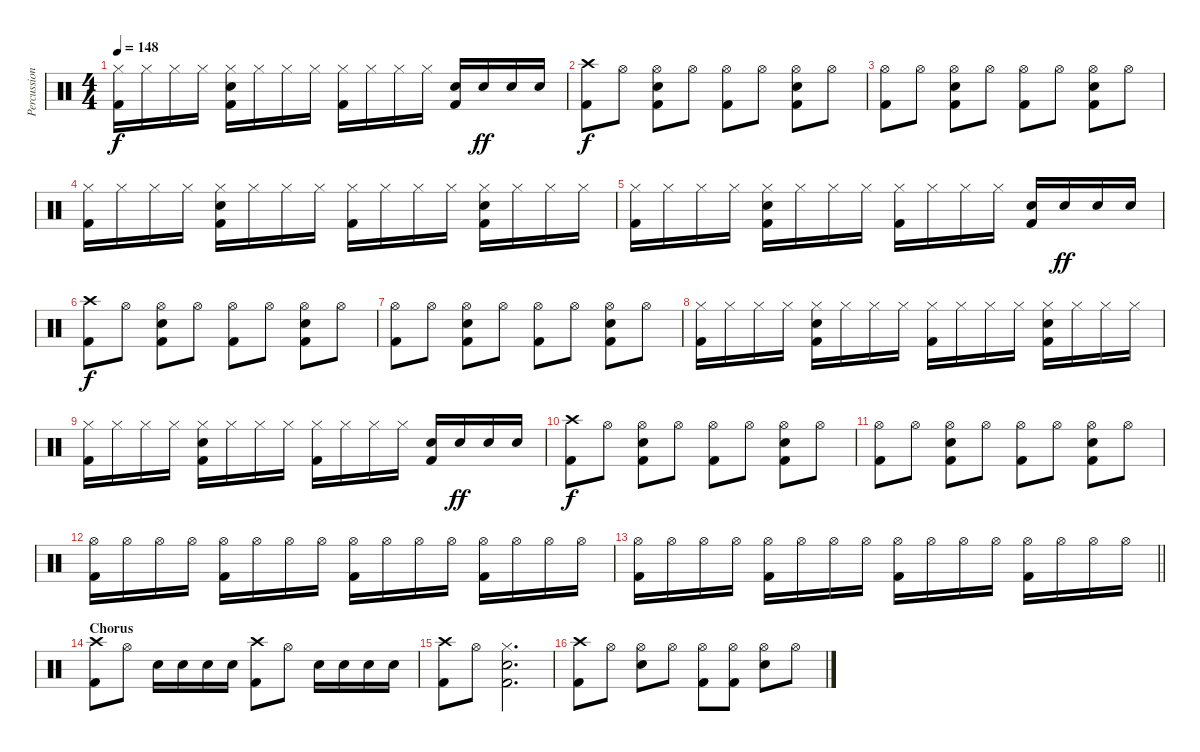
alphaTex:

\track ("Percussion" "Percussion") {instrument percussion}
\staff {score}
\articulation defaults
\ts (4 4)
\tempo 148
\clef neutral
\ks c
("Hi-Hat (closed)" "Kick (hit) 2").16{dy f} "Hi-Hat (closed)".16 "Hi-Hat (closed)".16 "Hi-Hat (closed)".16 ("Hi-Hat (closed)" "Electric Snare (hit)" "Kick (hit) 2").16 "Hi-Hat (closed)".16 "Hi-Hat (closed)".16 "Hi-Hat (closed)".16 ("Hi-Hat (closed)" "Kick (hit) 2").16 "Hi-Hat (closed)".16 "Hi-Hat (closed)".16 "Hi-Hat (closed)".16 ("Electric Snare (hit)" "Kick (hit) 2").16 "Electric Snare (hit)".16{dy ff} "Electric Snare (hit)".16 "Electric Snare (hit)".16 |
("Crash high (hit)" "Kick (hit) 2").8{dy f} "Hi-Hat (open)".8 ("Hi-Hat (open)" "Electric Snare (hit)" "Kick (hit) 2").8 "Hi-Hat (open)".8 ("Hi-Hat (open)" "Kick (hit) 2").8 "Hi-Hat (open)".8 ("Hi-Hat (open)" "Electric Snare (hit)" "Kick (hit) 2").8 "Hi-Hat (open)".8 |
("Hi-Hat (open)" "Kick (hit) 2").8 "Hi-Hat (open)".8 ("Hi-Hat (open)" "Electric Snare (hit)" "Kick (hit) 2").8 "Hi-Hat (open)".8 ("Hi-Hat (open)" "Kick (hit) 2").8 "Hi-Hat (open)".8 ("Hi-Hat (open)" "Electric Snare (hit)" "Kick (hit) 2").8 "Hi-Hat (open)".8 |
("Hi-Hat (closed)" "Kick (hit) 2").16 "Hi-Hat (closed)".16 "Hi-Hat (closed)".16 "Hi-Hat (closed)".16 ("Hi-Hat (closed)" "Electric Snare (hit)" "Kick (hit) 2").16 "Hi-Hat (closed)".16 "Hi-Hat (closed)".16 "Hi-Hat (closed)".16 ("Hi-Hat (closed)" "Kick (hit) 2").16 "Hi-Hat (closed)".16 "Hi-Hat (closed)".16 "Hi-Hat (closed)".16 ("Hi-Hat (closed)" "Electric Snare (hit)" "Kick (hit) 2").16 "Hi-Hat (closed)".16 "Hi-Hat (closed)".16 "Hi-Hat (closed)".16 |
("Hi-Hat (closed)" "Kick (hit) 2").16 "Hi-Hat (closed)".16 "Hi-Hat (closed)".16 "Hi-Hat (closed)".16 ("Hi-Hat (closed)" "Electric Snare (hit)" "Kick (hit) 2").16 "Hi-Hat (closed)".16 "Hi-Hat (closed)".16 "Hi-Hat (closed)".16 ("Hi-Hat (closed)" "Kick (hit) 2").16 "Hi-Hat (closed)".16 "Hi-Hat (closed)".16 "Hi-Hat (closed)".16 ("Electric Snare (hit)" "Kick (hit) 2").16 "Electric Snare (hit)".16{dy ff} "Electric Snare (hit)".16 "Electric Snare (hit)".16 |
("Crash high (hit)" "Kick (hit) 2").8{dy f} "Hi-Hat (open)".8 ("Hi-Hat (open)" "Electric Snare (hit)" "Kick (hit) 2").8 "Hi-Hat (open)".8 ("Hi-Hat (open)" "Kick (hit) 2").8 "Hi-Hat (open)".8 ("Hi-Hat (open)" "Electric Snare (hit)" "Kick (hit) 2").8 "Hi-Hat (open)".8 |
("Hi-Hat (open)" "Kick (hit) 2").8 "Hi-Hat (open)".8 ("Hi-Hat (open)" "Electric Snare (hit)" "Kick (hit) 2").8 "Hi-Hat (open)".8 ("Hi-Hat (open)" "Kick (hit) 2").8 "Hi-Hat (open)".8 ("Hi-Hat (open)" "Electric Snare (hit)" "Kick (hit) 2").8 "Hi-Hat (open)".8 |
("Hi-Hat (closed)" "Kick (hit) 2").16 "Hi-Hat (closed)".16 "Hi-Hat (closed)".16 "Hi-Hat (closed)".16 ("Hi-Hat (closed)" "Electric Snare (hit)" "Kick (hit) 2").16 "Hi-Hat (closed)".16 "Hi-Hat (closed)".16 "Hi-Hat (closed)".16 ("Hi-Hat (closed)" "Kick (hit) 2").16 "Hi-Hat (closed)".16 "Hi-Hat (closed)".16 "Hi-Hat (closed)".16 ("Hi-Hat (closed)" "Electric Snare (hit)" "Kick (hit) 2").16 "Hi-Hat (closed)".16 "Hi-Hat (closed)".16 "Hi-Hat (closed)".16 |
("Hi-Hat (closed)" "Kick (hit) 2").16 "Hi-Hat (closed)".16 "Hi-Hat (closed)".16 "Hi-Hat (closed)".16 ("Hi-Hat (closed)" "Electric Snare (hit)" "Kick (hit) 2").16 "Hi-Hat (closed)".16 "Hi-Hat (closed)".16 "Hi-Hat (closed)".16 ("Hi-Hat (closed)" "Kick (hit) 2").16 "Hi-Hat (closed)".16 "Hi-Hat (closed)".16 "Hi-Hat (closed)".16 ("Electric Snare (hit)" "Kick (hit) 2").16 "Electric Snare (hit)".16{dy ff} "Electric Snare (hit)".16 "Electric Snare (hit)".16 |
("Crash high (hit)" "Kick (hit) 2").8{dy f} "Hi-Hat (open)".8 ("Hi-Hat (open)" "Electric Snare (hit)" "Kick (hit) 2").8 "Hi-Hat (open)".8 ("Hi-Hat (open)" "Kick (hit) 2").8 "Hi-Hat (open)".8 ("Hi-Hat (open)" "Electric Snare (hit)" "Kick (hit) 2").8 "Hi-Hat (open)".8 |
("Hi-Hat (open)" "Kick (hit) 2").8 "Hi-Hat (open)".8 ("Hi-Hat (open)" "Electric Snare (hit)" "Kick (hit) 2").8 "Hi-Hat (open)".8 ("Hi-Hat (open)" "Kick (hit) 2").8 "Hi-Hat (open)".8 ("Hi-Hat (open)" "Electric Snare (hit)" "Kick (hit) 2").8 "Hi-Hat (open)".8 |
("Hi-Hat (open)" "Kick (hit) 2").16 "Hi-Hat (open)".16 "Hi-Hat (open)".16 "Hi-Hat (open)".16 ("Hi-Hat (open)" "Kick (hit) 2").16 "Hi-Hat (open)".16 "Hi-Hat (open)".16 "Hi-Hat (open)".16 ("Hi-Hat (open)" "Kick (hit) 2").16 "Hi-Hat (open)".16 "Hi-Hat (open)".16 "Hi-Hat (open)".16 ("Hi-Hat (open)" "Kick (hit) 2").16 "Hi-Hat (open)".16 "Hi-Hat (open)".16 "Hi-Hat (open)".16 |
\barLineRight lightlight
("Hi-Hat (open)" "Kick (hit) 2").16 "Hi-Hat (open)".16 "Hi-Hat (open)".16 "Hi-Hat (open)".16 ("Hi-Hat (open)" "Kick (hit) 2").16 "Hi-Hat (open)".16 "Hi-Hat (open)".16 "Hi-Hat (open)".16 ("Hi-Hat (open)" "Kick (hit) 2").16 "Hi-Hat (open)".16 "Hi-Hat (open)".16 "Hi-Hat (open)".16 ("Hi-Hat (open)" "Kick (hit) 2").16 "Hi-Hat (open)".16 "Hi-Hat (open)".16 "Hi-Hat (open)".16 |
\section ("" "Chorus")
("Crash high (hit)" "Kick (hit) 2").8 "Hi-Hat (open)".8 "Electric Snare (hit)".16 "Electric Snare (hit)".16 "Electric Snare (hit)".16 "Electric Snare (hit)".16 ("Crash high (hit)" "Kick (hit) 2").8 "Hi-Hat (open)".8 "Electric Snare (hit)".16 "Electric Snare (hit)".16 "Electric Snare (hit)".16 "Electric Snare (hit)".16 |
("Crash high (hit)" "Kick (hit) 2").8 "Hi-Hat (open)".8 ("Hi-Hat (closed)" "Electric Snare (hit)" "Kick (hit) 2").2{d} |
("Crash high (hit)" "Kick (hit) 2").8 "Hi-Hat (open)".8 ("Hi-Hat (open)" "Electric Snare (hit)").8 "Hi-Hat (open)".8 ("Hi-Hat (open)" "Kick (hit) 2").8 ("Hi-Hat (open)" "Kick (hit) 2").8 ("Hi-Hat (open)" "Electric Snare (hit)").8 "Hi-Hat (open)".8
